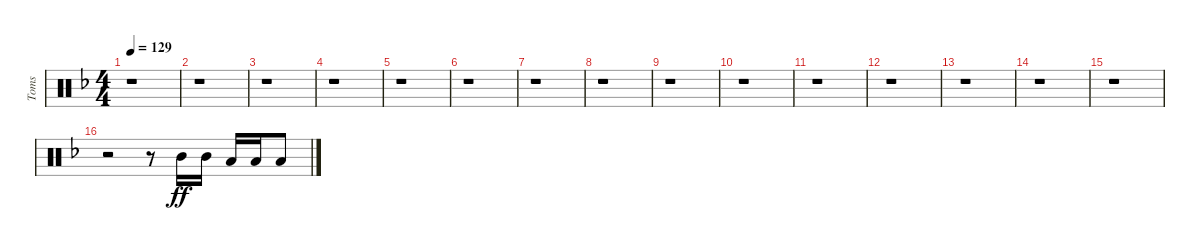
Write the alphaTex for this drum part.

\track ("Toms" "Toms") {instrument percussion}
\staff {score}
\articulation defaults
\ts (4 4)
\tempo 129
\clef neutral
\ks dminor
r.1{dy ff} |
r.1 |
r.1 |
r.1 |
r.1 |
r.1 |
r.1 |
r.1 |
r.1 |
r.1 |
r.1 |
r.1 |
r.1 |
r.1 |
r.1 |
r.2 r.8 "Mid Tom (hit)".16 "Mid Tom (hit)".16 "Low Tom (hit)".16{balance 6} "Low Tom (hit)".16 "Low Tom (hit)".8
